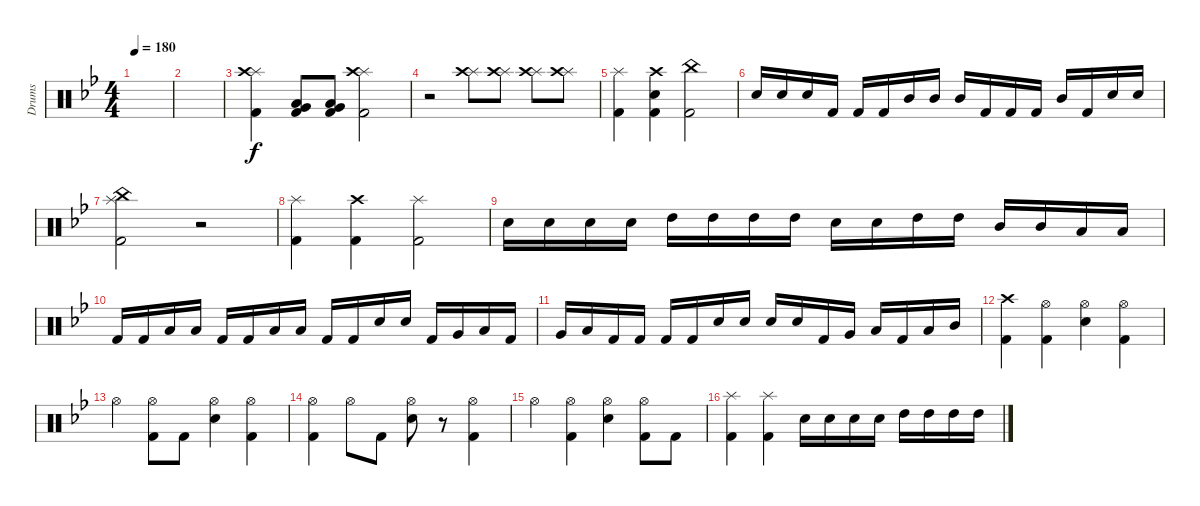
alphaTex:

\defaultSystemsLayout 4
\bracketExtendMode groupsimilarinstruments
\otherSystemsTrackNameOrientation horizontal
\track ("Drumkit" "Drums") {instrument percussion}
\staff {score}
\articulation defaults
\ts (4 4)
\tempo 180
\clef neutral
\scale
0.333333
\ks bb
|
\scale
0.333333 |
\scale
0.333333 ("Splash (hit)"{acc forcenatural} "Crash high (hit)"{acc forcenatural} "Kick (hit) 2"{acc forcenatural}).4 ("Kick (hit) 2"{acc forcenatural} "Very Low Tom (hit)"{acc forcenatural} "Low Tom (hit)"{acc forcenatural}).8 ("Kick (hit) 2"{acc forcenatural} "Low Tom (hit)"{acc forcenatural} "Very Low Tom (hit)"{acc forcenatural}).8 ("Splash (hit)"{acc forcenatural} "Crash high (hit)"{acc forcenatural} "Kick (hit) 2"{acc forcenatural}).2 |
\scale
0.333333 r.2 ("Splash (hit)"{acc forcenatural} "Crash high (hit)"{acc forcenatural}).8 ("Splash (hit)"{acc forcenatural} "Crash high (hit)"{acc forcenatural}).8 ("Splash (hit)"{acc forcenatural} "Crash high (hit)"{acc forcenatural}).8 ("Splash (hit)"{acc forcenatural} "Crash high (hit)"{acc forcenatural}).8 |
\scale
0.333333 ("Splash (hit)"{acc forcenatural} "Kick (hit) 2"{acc forcenatural}).4 ("Kick (hit) 2"{acc forcenatural} "Snare (hit) 2"{acc forcenatural} "Crash high (hit)"{acc forcenatural}).4 ("Kick (hit) 2"{acc forcenatural} "China (hit)"{acc forcenatural}).2 |
\scale
0.333333 "Snare (hit) 2"{acc forcenatural}.16 "Snare (hit) 2"{acc forcenatural}.16 "Snare (hit) 2"{acc forcenatural}.16 "Kick (hit) 2"{acc forcenatural}.16 "Kick (hit) 2"{acc forcenatural}.16 "Kick (hit) 2"{acc forcenatural}.16 "Mid Tom (hit)"{acc forcenatural}.16 "Mid Tom (hit)"{acc forcenatural}.16 "Mid Tom (hit)"{acc forcenatural}.16 "Kick (hit) 2"{acc forcenatural}.16 "Kick (hit) 2"{acc forcenatural}.16 "Kick (hit) 2"{acc forcenatural}.16 "Mid Tom (hit)"{acc forcenatural}.16 "Kick (hit) 2"{acc forcenatural}.16 "Snare (hit) 2"{acc forcenatural}.16 "Snare (hit) 2"{acc forcenatural}.16 |
\scale
0.333333 ("Splash (hit)"{acc forcenatural} "China (hit)"{acc forcenatural} "Kick (hit) 2"{acc forcenatural}).2 r.2 |
\scale
0.333333 ("Splash (hit)"{acc forcenatural} "Kick (hit) 2"{acc forcenatural}).4 ("Crash high (hit)"{acc forcenatural} "Kick (hit) 2"{acc forcenatural}).4 ("Splash (hit)"{acc forcenatural} "Kick (hit) 2"{acc forcenatural}).2 |
\scale
0.333333 "Snare (hit) 2"{acc forcenatural}.16 "Snare (hit) 2"{acc forcenatural}.16 "Snare (hit) 2"{acc forcenatural}.16 "Snare (hit) 2"{acc forcenatural}.16 "High Tom (hit)"{acc forcenatural}.16 "High Tom (hit)"{acc forcenatural}.16 "High Tom (hit)"{acc forcenatural}.16 "High Tom (hit)"{acc forcenatural}.16 "Snare (hit) 2"{acc forcenatural}.16 "Snare (hit) 2"{acc forcenatural}.16 "High Tom (hit)"{acc forcenatural}.16 "High Tom (hit)"{acc forcenatural}.16 "Mid Tom (hit)"{acc forcenatural}.16 "Mid Tom (hit)"{acc forcenatural}.16 "Low Tom (hit)"{acc forcenatural}.16 "Low Tom (hit)"{acc forcenatural}.16 |
\scale
0.333333 "Kick (hit) 2"{acc forcenatural}.16 "Kick (hit) 2"{acc forcenatural}.16 "Low Tom (hit)"{acc forcenatural}.16 "Low Tom (hit)"{acc forcenatural}.16 "Kick (hit) 2"{acc forcenatural}.16 "Kick (hit) 2"{acc forcenatural}.16 "Low Tom (hit)"{acc forcenatural}.16 "Low Tom (hit)"{acc forcenatural}.16 "Kick (hit) 2"{acc forcenatural}.16 "Kick (hit) 2"{acc forcenatural}.16 "Snare (hit) 2"{acc forcenatural}.16 "Snare (hit) 2"{acc forcenatural}.16 "Kick (hit) 2"{acc forcenatural}.16 "Very Low Tom (hit)"{acc forcenatural}.16 "Low Tom (hit)"{acc forcenatural}.16 "Kick (hit) 2"{acc forcenatural}.16 |
\scale
0.333333 "Very Low Tom (hit)"{acc forcenatural}.16 "Low Tom (hit)"{acc forcenatural}.16 "Kick (hit) 2"{acc forcenatural}.16 "Kick (hit) 2"{acc forcenatural}.16 "Kick (hit) 2"{acc forcenatural}.16 "Kick (hit) 2"{acc forcenatural}.16 "Snare (hit) 2"{acc forcenatural}.16 "Snare (hit) 2"{acc forcenatural}.16 "Snare (hit) 2"{acc forcenatural}.16 "Snare (hit) 2"{acc forcenatural}.16 "Kick (hit) 2"{acc forcenatural}.16 "Very Low Tom (hit)"{acc forcenatural}.16 "Low Tom (hit)"{acc forcenatural}.16 "Kick (hit) 2"{acc forcenatural}.16 "Low Tom (hit)"{acc forcenatural}.16 "Mid Tom (hit)"{acc forcenatural}.16 |
\scale
0.333333 ("Crash high (hit)"{acc forcenatural} "Kick (hit) 2"{acc forcenatural}).4 ("Hi-Hat (open)"{acc forcenatural} "Kick (hit) 2"{acc forcenatural}).4 ("Hi-Hat (open)"{acc forcenatural} "Snare (hit) 2"{acc forcenatural}).4 ("Hi-Hat (open)"{acc forcenatural} "Kick (hit) 2"{acc forcenatural}).4 |
\scale
0.333333 "Hi-Hat (open)"{acc forcenatural}.4 ("Hi-Hat (open)"{acc forcenatural} "Kick (hit) 2"{acc forcenatural}).8 "Kick (hit) 2"{acc forcenatural}.8 ("Hi-Hat (open)"{acc forcenatural} "Snare (hit) 2"{acc forcenatural}).4 ("Hi-Hat (open)"{acc forcenatural} "Kick (hit) 2"{acc forcenatural}).4 |
\scale
0.333333 ("Hi-Hat (open)"{acc forcenatural} "Kick (hit) 2"{acc forcenatural}).4 "Hi-Hat (open)"{acc forcenatural}.8 "Kick (hit) 2"{acc forcenatural}.8 ("Hi-Hat (open)"{acc forcenatural} "Snare (hit) 2"{acc forcenatural}).8 r.8 ("Hi-Hat (open)"{acc forcenatural} "Kick (hit) 2"{acc forcenatural}).4 |
\scale
0.333333 "Hi-Hat (open)"{acc forcenatural}.4 ("Hi-Hat (open)"{acc forcenatural} "Kick (hit) 2"{acc forcenatural}).4 ("Hi-Hat (open)"{acc forcenatural} "Snare (hit) 2"{acc forcenatural}).4 ("Hi-Hat (open)"{acc forcenatural} "Kick (hit) 2"{acc forcenatural}).8 "Kick (hit) 2"{acc forcenatural}.8 |
\scale
0.333333 ("Kick (hit) 2"{acc forcenatural} "Splash (hit)"{acc forcenatural}).4 ("Splash (hit)"{acc forcenatural} "Kick (hit) 2"{acc forcenatural}).4 "Snare (hit) 2"{acc forcenatural}.16 "Snare (hit) 2"{acc forcenatural}.16 "Snare (hit) 2"{acc forcenatural}.16 "Snare (hit) 2"{acc forcenatural}.16 "High Tom (hit)"{acc forcenatural}.16 "High Tom (hit)"{acc forcenatural}.16 "High Tom (hit)"{acc forcenatural}.16 "High Tom (hit)"{acc forcenatural}.16
